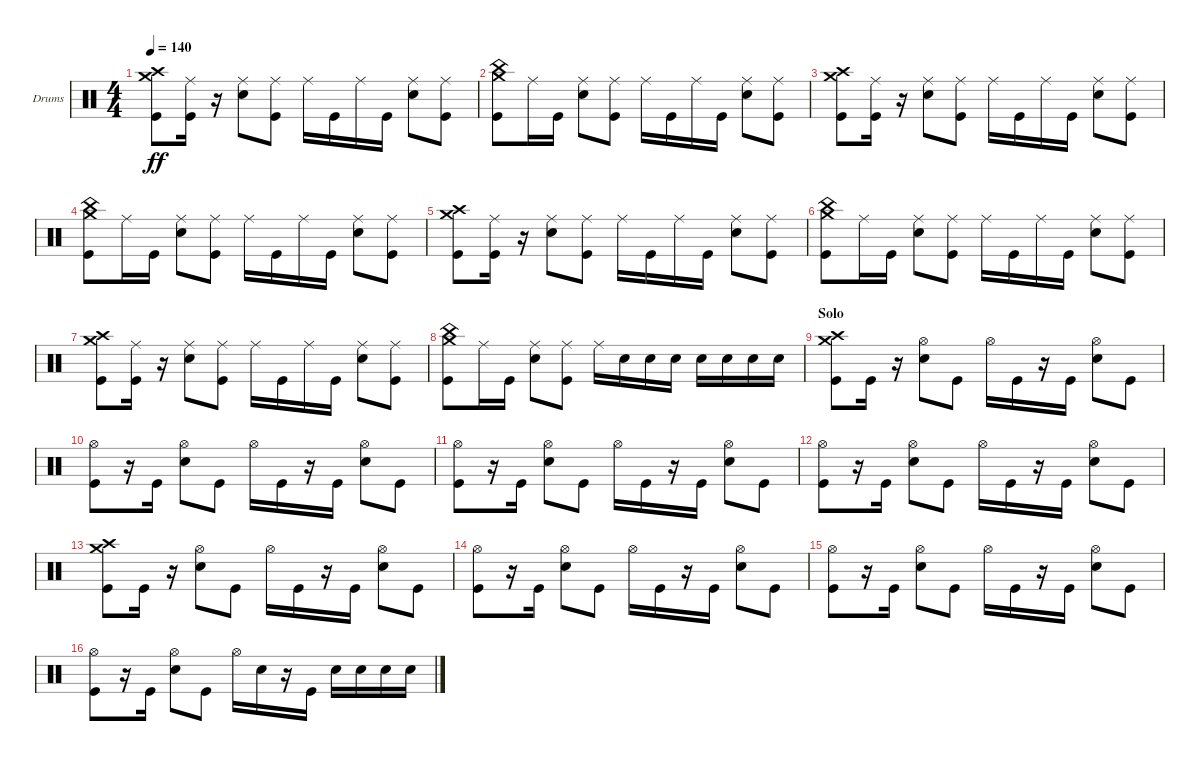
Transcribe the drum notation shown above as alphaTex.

\defaultSystemsLayout 4
\bracketExtendMode nobrackets
\firstSystemTrackNameOrientation horizontal
\otherSystemsTrackNameOrientation horizontal
\track ("Dave Abbruzzese" "Drums") {solo instrument percussion}
\staff {score}
\articulation defaults
\ts (4 4)
\tempo 140
\clef neutral
\ks c
("Crash high (hit)" "Kick (hit)" "Crash medium (hit)").8{dy ff} ("Kick (hit)" "Ride (middle)").16 r.16 ("Snare (hit) 2" "Ride (middle)").8 ("Kick (hit)" "Ride (middle)").8 "Ride (middle)".16 "Kick (hit)".16 "Ride (middle)".16 "Kick (hit)".16 ("Snare (hit) 2" "Ride (middle)").8 ("Kick (hit)" "Ride (middle)").8 |
("China (hit)" "Kick (hit)" "Crash medium (hit)").8 "Ride (middle)".16 "Kick (hit)".16 ("Snare (hit) 2" "Ride (middle)").8 ("Kick (hit)" "Ride (middle)").8 "Ride (middle)".16 "Kick (hit)".16 "Ride (middle)".16 "Kick (hit)".16 ("Snare (hit) 2" "Ride (middle)").8 ("Kick (hit)" "Ride (middle)").8 |
("Crash high (hit)" "Kick (hit)" "Crash medium (hit)").8 ("Kick (hit)" "Ride (middle)").16 r.16 ("Snare (hit) 2" "Ride (middle)").8 ("Kick (hit)" "Ride (middle)").8 "Ride (middle)".16 "Kick (hit)".16 "Ride (middle)".16 "Kick (hit)".16 ("Snare (hit) 2" "Ride (middle)").8 ("Kick (hit)" "Ride (middle)").8 |
("China (hit)" "Kick (hit)" "Crash medium (hit)").8 "Ride (middle)".16 "Kick (hit)".16 ("Snare (hit) 2" "Ride (middle)").8 ("Kick (hit)" "Ride (middle)").8 "Ride (middle)".16 "Kick (hit)".16 "Ride (middle)".16 "Kick (hit)".16 ("Snare (hit) 2" "Ride (middle)").8 ("Kick (hit)" "Ride (middle)").8 |
("Crash high (hit)" "Kick (hit)" "Crash medium (hit)").8 ("Kick (hit)" "Ride (middle)").16 r.16 ("Snare (hit) 2" "Ride (middle)").8 ("Kick (hit)" "Ride (middle)").8 "Ride (middle)".16 "Kick (hit)".16 "Ride (middle)".16 "Kick (hit)".16 ("Snare (hit) 2" "Ride (middle)").8 ("Kick (hit)" "Ride (middle)").8 |
("China (hit)" "Kick (hit)" "Crash medium (hit)").8 "Ride (middle)".16 "Kick (hit)".16 ("Snare (hit) 2" "Ride (middle)").8 ("Kick (hit)" "Ride (middle)").8 "Ride (middle)".16 "Kick (hit)".16 "Ride (middle)".16 "Kick (hit)".16 ("Snare (hit) 2" "Ride (middle)").8 ("Kick (hit)" "Ride (middle)").8 |
("Crash high (hit)" "Kick (hit)" "Crash medium (hit)").8 ("Kick (hit)" "Ride (middle)").16 r.16 ("Snare (hit) 2" "Ride (middle)").8 ("Kick (hit)" "Ride (middle)").8 "Ride (middle)".16 "Kick (hit)".16 "Ride (middle)".16 "Kick (hit)".16 ("Snare (hit) 2" "Ride (middle)").8 ("Kick (hit)" "Ride (middle)").8 |
("China (hit)" "Kick (hit)" "Crash medium (hit)").8 "Ride (middle)".16 "Kick (hit)".16 ("Snare (hit) 2" "Ride (middle)").8 ("Kick (hit)" "Ride (middle)").8 "Ride (middle)".16 "Snare (hit) 2".16 "Snare (hit) 2".16 "Snare (hit) 2".16 "Snare (hit) 2".16 "Snare (hit) 2".16 "Snare (hit) 2".16 "Snare (hit) 2".16 |
\section ("" "Solo")
("Crash high (hit)" "Kick (hit)" "Crash medium (hit)").8 "Kick (hit)".16 r.16 ("Snare (hit) 2" "Hi-Hat (open)").8 "Kick (hit)".8 "Hi-Hat (open)".16 "Kick (hit)".16 r.16 "Kick (hit)".16 ("Snare (hit) 2" "Hi-Hat (open)").8 "Kick (hit)".8 |
("Kick (hit)" "Hi-Hat (open)").8 r.16 "Kick (hit)".16 ("Snare (hit) 2" "Hi-Hat (open)").8 "Kick (hit)".8 "Hi-Hat (open)".16 "Kick (hit)".16 r.16 "Kick (hit)".16 ("Snare (hit) 2" "Hi-Hat (open)").8 "Kick (hit)".8 |
("Kick (hit)" "Hi-Hat (open)").8 r.16 "Kick (hit)".16 ("Snare (hit) 2" "Hi-Hat (open)").8 "Kick (hit)".8 "Hi-Hat (open)".16 "Kick (hit)".16 r.16 "Kick (hit)".16 ("Snare (hit) 2" "Hi-Hat (open)").8 "Kick (hit)".8 |
("Kick (hit)" "Hi-Hat (open)").8 r.16 "Kick (hit)".16 ("Snare (hit) 2" "Hi-Hat (open)").8 "Kick (hit)".8 "Hi-Hat (open)".16 "Kick (hit)".16 r.16 "Kick (hit)".16 ("Snare (hit) 2" "Hi-Hat (open)").8 "Kick (hit)".8 |
("Crash high (hit)" "Kick (hit)" "Crash medium (hit)").8 "Kick (hit)".16 r.16 ("Snare (hit) 2" "Hi-Hat (open)").8 "Kick (hit)".8 "Hi-Hat (open)".16 "Kick (hit)".16 r.16 "Kick (hit)".16 ("Snare (hit) 2" "Hi-Hat (open)").8 "Kick (hit)".8 |
("Kick (hit)" "Hi-Hat (open)").8 r.16 "Kick (hit)".16 ("Snare (hit) 2" "Hi-Hat (open)").8 "Kick (hit)".8 "Hi-Hat (open)".16 "Kick (hit)".16 r.16 "Kick (hit)".16 ("Snare (hit) 2" "Hi-Hat (open)").8 "Kick (hit)".8 |
("Kick (hit)" "Hi-Hat (open)").8 r.16 "Kick (hit)".16 ("Snare (hit) 2" "Hi-Hat (open)").8 "Kick (hit)".8 "Hi-Hat (open)".16 "Kick (hit)".16 r.16 "Kick (hit)".16 ("Snare (hit) 2" "Hi-Hat (open)").8 "Kick (hit)".8 |
("Kick (hit)" "Hi-Hat (open)").8 r.16 "Kick (hit)".16 ("Snare (hit) 2" "Hi-Hat (open)").8 "Kick (hit)".8 "Hi-Hat (open)".16 "Snare (hit) 2".16 r.16 "Kick (hit)".16 "Snare (hit) 2".16 "Snare (hit) 2".16 "Snare (hit) 2".16 "Snare (hit) 2".16
